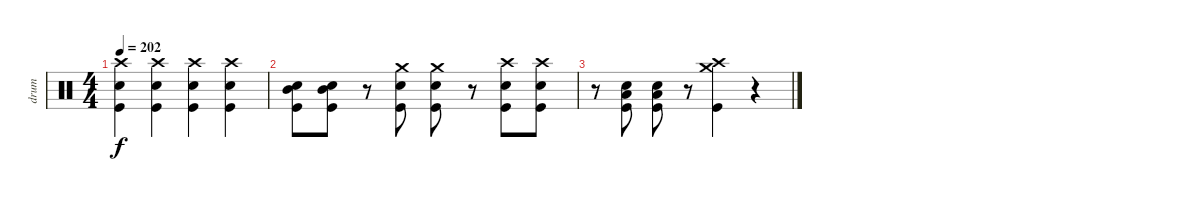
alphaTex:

\track ("drum" "drum") {instrument percussion}
\staff {score}
\articulation defaults
\ts (4 4)
\tempo 202
\clef neutral
\ks c
("Crash high (hit)" "Electric Snare (hit)" "Kick (hit)").4{dy f} ("Crash high (hit)" "Electric Snare (hit)" "Kick (hit)").4 ("Crash high (hit)" "Electric Snare (hit)" "Kick (hit)").4 ("Crash high (hit)" "Electric Snare (hit)" "Kick (hit)").4 |
("Mid Tom (hit)" "Electric Snare (hit)" "Kick (hit)").8 ("Mid Tom (hit)" "Electric Snare (hit)" "Kick (hit)").8 r.8 ("Crash medium (hit)" "Electric Snare (hit)" "Kick (hit)").8 ("Crash medium (hit)" "Electric Snare (hit)" "Kick (hit)").8 r.8 ("Crash high (hit)" "Electric Snare (hit)" "Kick (hit)").8 ("Crash high (hit)" "Electric Snare (hit)" "Kick (hit)").8 |
r.8 ("Low Floor Tom (hit)" "Electric Snare (hit)" "Kick (hit)").8 ("Low Floor Tom (hit)" "Electric Snare (hit)" "Kick (hit)").8 r.8 ("Crash high (hit)" "Crash medium (hit)" "Kick (hit)").4 r.4
